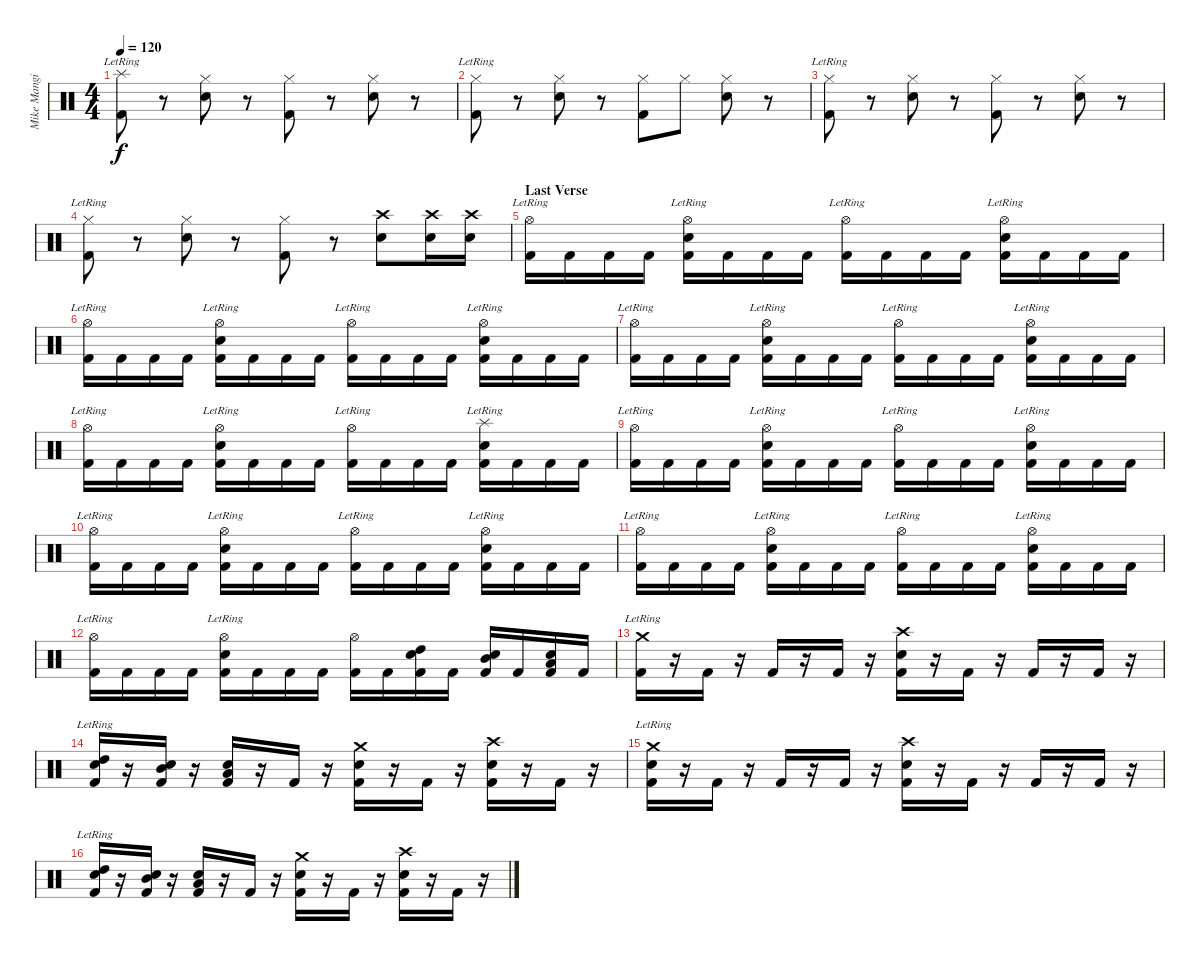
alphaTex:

\track ("Mike Mangini" "Mike Mangi") {instrument percussion}
\staff {score}
\articulation defaults
\ts (4 4)
\tempo 120
\clef neutral
\ks c
("Splash (hit)" "Kick (hit) 2"{lr}).8{dy f} r.8 ("Hi-Hat (closed)" "Snare (hit) 2").8 r.8 ("Hi-Hat (closed)" "Kick (hit) 2").8 r.8 ("Hi-Hat (closed)" "Snare (hit) 2").8 r.8 |
("Hi-Hat (closed)" "Kick (hit) 2"{lr}).8 r.8 ("Hi-Hat (closed)" "Snare (hit) 2").8 r.8 ("Hi-Hat (closed)" "Kick (hit) 2").8 "Hi-Hat (closed)".8 ("Hi-Hat (closed)" "Snare (hit) 2").8 r.8 |
("Hi-Hat (closed)" "Kick (hit) 2"{lr}).8 r.8 ("Hi-Hat (closed)" "Snare (hit) 2").8 r.8 ("Hi-Hat (closed)" "Kick (hit) 2").8 r.8 ("Hi-Hat (closed)" "Snare (hit) 2").8 r.8 |
("Hi-Hat (closed)" "Kick (hit) 2"{lr}).8 r.8 ("Hi-Hat (closed)" "Snare (hit) 2").8 r.8 ("Hi-Hat (closed)" "Kick (hit) 2").8 r.8 ("Crash high (hit)" "Snare (hit) 2").8 ("Crash high (hit)" "Snare (hit) 2").16 ("Crash high (hit)" "Snare (hit) 2").16 |
\section ("" "Last Verse")
("Hi-Hat (open)"{lr} "Kick (hit) 2"{lr}).16 "Kick (hit) 2".16 "Kick (hit) 2".16 "Kick (hit) 2".16 ("Hi-Hat (open)"{lr} "Snare (hit) 2"{lr} "Kick (hit) 2").16 "Kick (hit) 2".16 "Kick (hit) 2".16 "Kick (hit) 2".16 ("Hi-Hat (open)"{lr} "Kick (hit) 2").16 "Kick (hit) 2".16 "Kick (hit) 2".16 "Kick (hit) 2".16 ("Hi-Hat (open)"{lr} "Snare (hit) 2"{lr} "Kick (hit) 2").16 "Kick (hit) 2".16 "Kick (hit) 2".16 "Kick (hit) 2".16 |
("Hi-Hat (open)"{lr} "Kick (hit) 2"{lr}).16 "Kick (hit) 2".16 "Kick (hit) 2".16 "Kick (hit) 2".16 ("Hi-Hat (open)"{lr} "Snare (hit) 2"{lr} "Kick (hit) 2").16 "Kick (hit) 2".16 "Kick (hit) 2".16 "Kick (hit) 2".16 ("Hi-Hat (open)"{lr} "Kick (hit) 2").16 "Kick (hit) 2".16 "Kick (hit) 2".16 "Kick (hit) 2".16 ("Hi-Hat (open)"{lr} "Snare (hit) 2"{lr} "Kick (hit) 2").16 "Kick (hit) 2".16 "Kick (hit) 2".16 "Kick (hit) 2".16 |
("Hi-Hat (open)"{lr} "Kick (hit) 2"{lr}).16 "Kick (hit) 2".16 "Kick (hit) 2".16 "Kick (hit) 2".16 ("Hi-Hat (open)"{lr} "Snare (hit) 2"{lr} "Kick (hit) 2").16 "Kick (hit) 2".16 "Kick (hit) 2".16 "Kick (hit) 2".16 ("Hi-Hat (open)"{lr} "Kick (hit) 2").16 "Kick (hit) 2".16 "Kick (hit) 2".16 "Kick (hit) 2".16 ("Hi-Hat (open)"{lr} "Snare (hit) 2"{lr} "Kick (hit) 2").16 "Kick (hit) 2".16 "Kick (hit) 2".16 "Kick (hit) 2".16 |
("Hi-Hat (open)"{lr} "Kick (hit) 2"{lr}).16 "Kick (hit) 2".16 "Kick (hit) 2".16 "Kick (hit) 2".16 ("Hi-Hat (open)"{lr} "Snare (hit) 2"{lr} "Kick (hit) 2").16 "Kick (hit) 2".16 "Kick (hit) 2".16 "Kick (hit) 2".16 ("Hi-Hat (open)"{lr} "Kick (hit) 2").16 "Kick (hit) 2".16 "Kick (hit) 2".16 "Kick (hit) 2".16 ("Splash (hit)"{lr} "Snare (hit) 2"{lr} "Kick (hit) 2").16 "Kick (hit) 2".16 "Kick (hit) 2".16 "Kick (hit) 2".16 |
("Hi-Hat (open)"{lr} "Kick (hit) 2"{lr}).16 "Kick (hit) 2".16 "Kick (hit) 2".16 "Kick (hit) 2".16 ("Hi-Hat (open)"{lr} "Snare (hit) 2"{lr} "Kick (hit) 2").16 "Kick (hit) 2".16 "Kick (hit) 2".16 "Kick (hit) 2".16 ("Hi-Hat (open)"{lr} "Kick (hit) 2").16 "Kick (hit) 2".16 "Kick (hit) 2".16 "Kick (hit) 2".16 ("Hi-Hat (open)"{lr} "Snare (hit) 2"{lr} "Kick (hit) 2").16 "Kick (hit) 2".16 "Kick (hit) 2".16 "Kick (hit) 2".16 |
("Hi-Hat (open)"{lr} "Kick (hit) 2"{lr}).16 "Kick (hit) 2".16 "Kick (hit) 2".16 "Kick (hit) 2".16 ("Hi-Hat (open)"{lr} "Snare (hit) 2"{lr} "Kick (hit) 2").16 "Kick (hit) 2".16 "Kick (hit) 2".16 "Kick (hit) 2".16 ("Hi-Hat (open)"{lr} "Kick (hit) 2").16 "Kick (hit) 2".16 "Kick (hit) 2".16 "Kick (hit) 2".16 ("Hi-Hat (open)"{lr} "Snare (hit) 2"{lr} "Kick (hit) 2").16 "Kick (hit) 2".16 "Kick (hit) 2".16 "Kick (hit) 2".16 |
("Hi-Hat (open)"{lr} "Kick (hit) 2"{lr}).16 "Kick (hit) 2".16 "Kick (hit) 2".16 "Kick (hit) 2".16 ("Hi-Hat (open)"{lr} "Snare (hit) 2"{lr} "Kick (hit) 2").16 "Kick (hit) 2".16 "Kick (hit) 2".16 "Kick (hit) 2".16 ("Hi-Hat (open)"{lr} "Kick (hit) 2").16 "Kick (hit) 2".16 "Kick (hit) 2".16 "Kick (hit) 2".16 ("Hi-Hat (open)"{lr} "Snare (hit) 2"{lr} "Kick (hit) 2").16 "Kick (hit) 2".16 "Kick (hit) 2".16 "Kick (hit) 2".16 |
("Hi-Hat (open)"{lr} "Kick (hit) 2"{lr}).16 "Kick (hit) 2".16 "Kick (hit) 2".16 "Kick (hit) 2".16 ("Hi-Hat (open)"{lr} "Snare (hit) 2"{lr} "Kick (hit) 2").16 "Kick (hit) 2".16 "Kick (hit) 2".16 "Kick (hit) 2".16 ("Hi-Hat (open)" "Kick (hit) 2").16 "Kick (hit) 2".16 ("High Tom (hit)" "Snare (hit) 2" "Kick (hit) 2").16 "Kick (hit) 2".16 ("Mid Tom (hit)" "Snare (hit) 2" "Kick (hit) 2").16 "Kick (hit) 2".16 ("Low Tom (hit)" "Snare (hit) 2" "Kick (hit) 2").16 "Kick (hit) 2".16 |
("Crash medium (hit)" "Kick (hit) 2"{lr}).16 r.16 "Kick (hit) 2".16 r.16 "Kick (hit) 2".16 r.16 "Kick (hit) 2".16 r.16 ("Crash high (hit)" "Snare (hit) 2" "Kick (hit) 2").16 r.16 "Kick (hit) 2".16 r.16 "Kick (hit) 2".16 r.16 "Kick (hit) 2".16 r.16 |
("High Tom (hit)" "Snare (hit) 2" "Kick (hit) 2"{lr}).16 r.16 ("Mid Tom (hit)" "Snare (hit) 2" "Kick (hit) 2").16 r.16 ("Low Tom (hit)" "Snare (hit) 2" "Kick (hit) 2").16 r.16 "Kick (hit) 2".16 r.16 ("Crash medium (hit)" "Snare (hit) 2" "Kick (hit) 2").16 r.16 "Kick (hit) 2".16 r.16 ("Crash high (hit)" "Snare (hit) 2" "Kick (hit) 2").16 r.16 "Kick (hit) 2".16 r.16 |
("Crash medium (hit)" "Snare (hit) 2" "Kick (hit) 2"{lr}).16 r.16 "Kick (hit) 2".16 r.16 "Kick (hit) 2".16 r.16 "Kick (hit) 2".16 r.16 ("Crash high (hit)" "Snare (hit) 2" "Kick (hit) 2").16 r.16 "Kick (hit) 2".16 r.16 "Kick (hit) 2".16 r.16 "Kick (hit) 2".16 r.16 |
("High Tom (hit)" "Snare (hit) 2" "Kick (hit) 2"{lr}).16 r.16 ("Mid Tom (hit)" "Snare (hit) 2" "Kick (hit) 2").16 r.16 ("Low Tom (hit)" "Snare (hit) 2" "Kick (hit) 2").16 r.16 "Kick (hit) 2".16 r.16 ("Crash medium (hit)" "Snare (hit) 2" "Kick (hit) 2").16 r.16 "Kick (hit) 2".16 r.16 ("Crash high (hit)" "Snare (hit) 2" "Kick (hit) 2").16 r.16 "Kick (hit) 2".16 r.16
